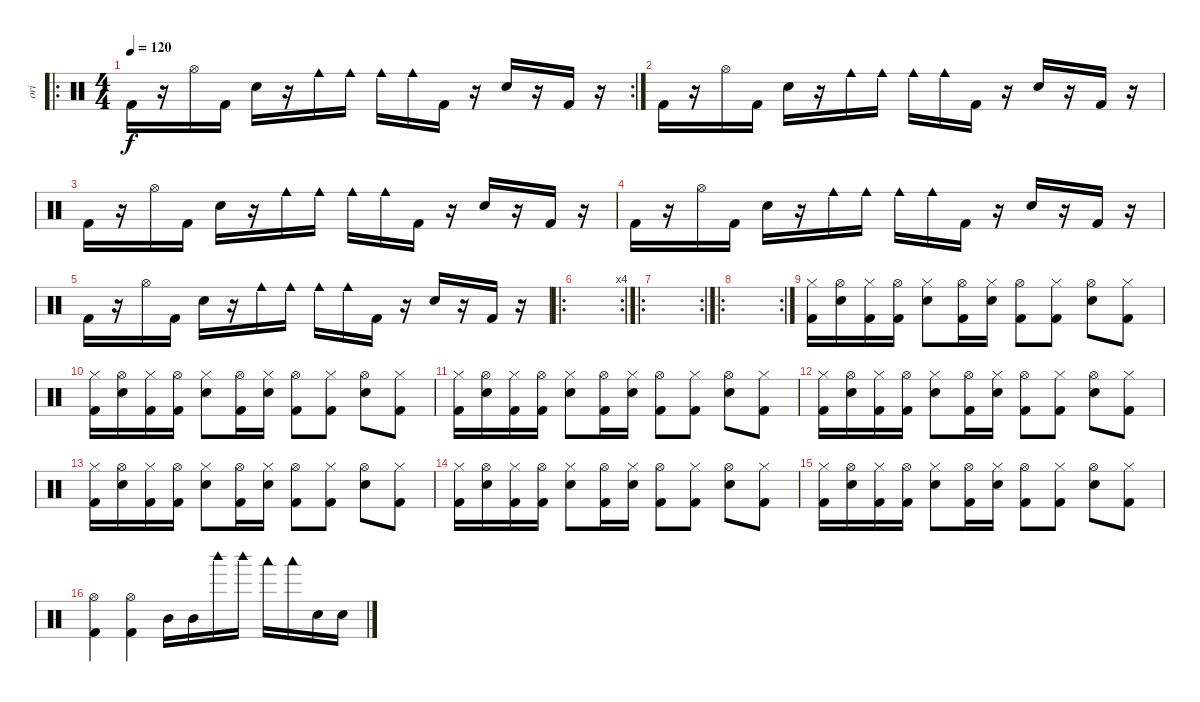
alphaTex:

\track ("ori" "ori") {instrument percussion}
\staff {score}
\articulation defaults
\ro
\rc 2
\ts (4 4)
\tempo 120
\clef neutral
\ks c "Kick (hit) 2".16{dy f}
r.16 "Hi-Hat (open)".16 "Kick (hit) 2".16 "Electric Snare (hit)".16 r.16 "Cowbell medium (hit)".16 "Cowbell medium (hit)".16 "Cowbell medium (hit)".16 "Cowbell medium (hit)".16 "Kick (hit) 2".16 r.16 "Electric Snare (hit)".16 r.16 "Kick (hit) 2".16 r.16 |
"Kick (hit) 2".16 r.16 "Hi-Hat (open)".16 "Kick (hit) 2".16 "Electric Snare (hit)".16 r.16 "Cowbell medium (hit)".16 "Cowbell medium (hit)".16 "Cowbell medium (hit)".16 "Cowbell medium (hit)".16 "Kick (hit) 2".16 r.16 "Electric Snare (hit)".16 r.16 "Kick (hit) 2".16 r.16 |
"Kick (hit) 2".16 r.16 "Hi-Hat (open)".16 "Kick (hit) 2".16 "Electric Snare (hit)".16 r.16 "Cowbell medium (hit)".16 "Cowbell medium (hit)".16 "Cowbell medium (hit)".16 "Cowbell medium (hit)".16 "Kick (hit) 2".16 r.16 "Electric Snare (hit)".16 r.16 "Kick (hit) 2".16 r.16 |
"Kick (hit) 2".16 r.16 "Hi-Hat (open)".16 "Kick (hit) 2".16 "Electric Snare (hit)".16 r.16 "Cowbell medium (hit)".16 "Cowbell medium (hit)".16 "Cowbell medium (hit)".16 "Cowbell medium (hit)".16 "Kick (hit) 2".16 r.16 "Electric Snare (hit)".16 r.16 "Kick (hit) 2".16 r.16 |
"Kick (hit) 2".16 r.16 "Hi-Hat (open)".16 "Kick (hit) 2".16 "Electric Snare (hit)".16 r.16 "Cowbell medium (hit)".16 "Cowbell medium (hit)".16 "Cowbell medium (hit)".16 "Cowbell medium (hit)".16 "Kick (hit) 2".16 r.16 "Electric Snare (hit)".16 r.16 "Kick (hit) 2".16 r.16 |
\ro
\rc 4
|
\ro
\rc 2
|
\ro
\rc 2
|
("Kick (hit) 2" "Hi-Hat (closed)").16 ("Electric Snare (hit)" "Hi-Hat (open)").16 ("Kick (hit) 2" "Hi-Hat (closed)").16 ("Kick (hit) 2" "Hi-Hat (open)").16 ("Electric Snare (hit)" "Hi-Hat (closed)").8 ("Kick (hit) 2" "Hi-Hat (open)").16 ("Electric Snare (hit)" "Hi-Hat (closed)").16 ("Kick (hit) 2" "Hi-Hat (open)").8 ("Kick (hit) 2" "Hi-Hat (closed)").8 ("Electric Snare (hit)" "Hi-Hat (open)").8 ("Kick (hit) 2" "Hi-Hat (closed)").8 |
("Kick (hit) 2" "Hi-Hat (closed)").16 ("Electric Snare (hit)" "Hi-Hat (open)").16 ("Kick (hit) 2" "Hi-Hat (closed)").16 ("Kick (hit) 2" "Hi-Hat (open)").16 ("Electric Snare (hit)" "Hi-Hat (closed)").8 ("Kick (hit) 2" "Hi-Hat (open)").16 ("Electric Snare (hit)" "Hi-Hat (closed)").16 ("Kick (hit) 2" "Hi-Hat (open)").8 ("Kick (hit) 2" "Hi-Hat (closed)").8 ("Electric Snare (hit)" "Hi-Hat (open)").8 ("Kick (hit) 2" "Hi-Hat (closed)").8 |
("Kick (hit) 2" "Hi-Hat (closed)").16 ("Electric Snare (hit)" "Hi-Hat (open)").16 ("Kick (hit) 2" "Hi-Hat (closed)").16 ("Kick (hit) 2" "Hi-Hat (open)").16 ("Electric Snare (hit)" "Hi-Hat (closed)").8 ("Kick (hit) 2" "Hi-Hat (open)").16 ("Electric Snare (hit)" "Hi-Hat (closed)").16 ("Kick (hit) 2" "Hi-Hat (open)").8 ("Kick (hit) 2" "Hi-Hat (closed)").8 ("Electric Snare (hit)" "Hi-Hat (open)").8 ("Kick (hit) 2" "Hi-Hat (closed)").8 |
("Kick (hit) 2" "Hi-Hat (closed)").16 ("Electric Snare (hit)" "Hi-Hat (open)").16 ("Kick (hit) 2" "Hi-Hat (closed)").16 ("Kick (hit) 2" "Hi-Hat (open)").16 ("Electric Snare (hit)" "Hi-Hat (closed)").8 ("Kick (hit) 2" "Hi-Hat (open)").16 ("Electric Snare (hit)" "Hi-Hat (closed)").16 ("Kick (hit) 2" "Hi-Hat (open)").8 ("Kick (hit) 2" "Hi-Hat (closed)").8 ("Electric Snare (hit)" "Hi-Hat (open)").8 ("Kick (hit) 2" "Hi-Hat (closed)").8 |
("Kick (hit) 2" "Hi-Hat (closed)").16 ("Electric Snare (hit)" "Hi-Hat (open)").16 ("Kick (hit) 2" "Hi-Hat (closed)").16 ("Kick (hit) 2" "Hi-Hat (open)").16 ("Electric Snare (hit)" "Hi-Hat (closed)").8 ("Kick (hit) 2" "Hi-Hat (open)").16 ("Electric Snare (hit)" "Hi-Hat (closed)").16 ("Kick (hit) 2" "Hi-Hat (open)").8 ("Kick (hit) 2" "Hi-Hat (closed)").8 ("Electric Snare (hit)" "Hi-Hat (open)").8 ("Kick (hit) 2" "Hi-Hat (closed)").8 |
("Kick (hit) 2" "Hi-Hat (closed)").16 ("Electric Snare (hit)" "Hi-Hat (open)").16 ("Kick (hit) 2" "Hi-Hat (closed)").16 ("Kick (hit) 2" "Hi-Hat (open)").16 ("Electric Snare (hit)" "Hi-Hat (closed)").8 ("Kick (hit) 2" "Hi-Hat (open)").16 ("Electric Snare (hit)" "Hi-Hat (closed)").16 ("Kick (hit) 2" "Hi-Hat (open)").8 ("Kick (hit) 2" "Hi-Hat (closed)").8 ("Electric Snare (hit)" "Hi-Hat (open)").8 ("Kick (hit) 2" "Hi-Hat (closed)").8 |
("Kick (hit) 2" "Hi-Hat (closed)").16 ("Electric Snare (hit)" "Hi-Hat (open)").16 ("Kick (hit) 2" "Hi-Hat (closed)").16 ("Kick (hit) 2" "Hi-Hat (open)").16 ("Electric Snare (hit)" "Hi-Hat (closed)").8 ("Kick (hit) 2" "Hi-Hat (open)").16 ("Electric Snare (hit)" "Hi-Hat (closed)").16 ("Kick (hit) 2" "Hi-Hat (open)").8 ("Kick (hit) 2" "Hi-Hat (closed)").8 ("Electric Snare (hit)" "Hi-Hat (open)").8 ("Kick (hit) 2" "Hi-Hat (closed)").8 |
("Kick (hit) 2" "Hi-Hat (open)").4 ("Kick (hit) 2" "Hi-Hat (open)").4 "Mid Tom (hit)".16 "Mid Tom (hit)".16 "Woodblock high (hit)".16 "Woodblock high (hit)".16 "Woodblock low (hit)".16 "Woodblock low (hit)".16 "Electric Snare (hit)".16 "Electric Snare (hit)".16
